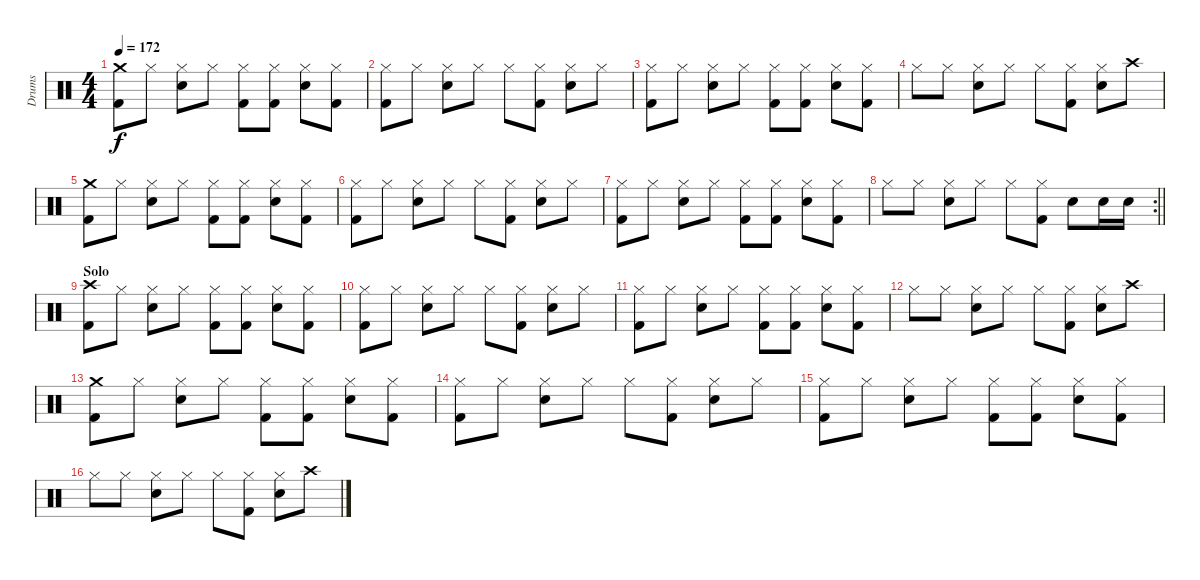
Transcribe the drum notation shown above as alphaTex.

\track ("Drums" "Drums") {instrument percussion}
\staff {score}
\articulation defaults
\ts (4 4)
\tempo 172
\clef neutral
\ks c
("Crash medium (hit)" "Kick (hit) 2").8{dy f} "Hi-Hat (closed)".8 ("Hi-Hat (closed)" "Electric Snare (hit)").8 "Hi-Hat (closed)".8 ("Hi-Hat (closed)" "Kick (hit) 2").8 ("Hi-Hat (closed)" "Kick (hit) 2").8 ("Hi-Hat (closed)" "Electric Snare (hit)").8 ("Hi-Hat (closed)" "Kick (hit) 2").8 |
("Hi-Hat (closed)" "Kick (hit) 2").8 "Hi-Hat (closed)".8 ("Hi-Hat (closed)" "Electric Snare (hit)").8 "Hi-Hat (closed)".8 "Hi-Hat (closed)".8 ("Hi-Hat (closed)" "Kick (hit) 2").8 ("Hi-Hat (closed)" "Electric Snare (hit)").8 "Hi-Hat (closed)".8 |
("Hi-Hat (closed)" "Kick (hit) 2").8 "Hi-Hat (closed)".8 ("Hi-Hat (closed)" "Electric Snare (hit)").8 "Hi-Hat (closed)".8 ("Hi-Hat (closed)" "Kick (hit) 2").8 ("Hi-Hat (closed)" "Kick (hit) 2").8 ("Hi-Hat (closed)" "Electric Snare (hit)").8 ("Hi-Hat (closed)" "Kick (hit) 2").8 |
"Hi-Hat (closed)".8 "Hi-Hat (closed)".8 ("Hi-Hat (closed)" "Electric Snare (hit)").8 "Hi-Hat (closed)".8 "Hi-Hat (closed)".8 ("Hi-Hat (closed)" "Kick (hit) 2").8 ("Hi-Hat (closed)" "Electric Snare (hit)").8 "Crash high (hit)".8 |
("Crash medium (hit)" "Kick (hit) 2").8 "Hi-Hat (closed)".8 ("Hi-Hat (closed)" "Electric Snare (hit)").8 "Hi-Hat (closed)".8 ("Hi-Hat (closed)" "Kick (hit) 2").8 ("Hi-Hat (closed)" "Kick (hit) 2").8 ("Hi-Hat (closed)" "Electric Snare (hit)").8 ("Hi-Hat (closed)" "Kick (hit) 2").8 |
("Hi-Hat (closed)" "Kick (hit) 2").8 "Hi-Hat (closed)".8 ("Hi-Hat (closed)" "Electric Snare (hit)").8 "Hi-Hat (closed)".8 "Hi-Hat (closed)".8 ("Hi-Hat (closed)" "Kick (hit) 2").8 ("Hi-Hat (closed)" "Electric Snare (hit)").8 "Hi-Hat (closed)".8 |
("Hi-Hat (closed)" "Kick (hit) 2").8 "Hi-Hat (closed)".8 ("Hi-Hat (closed)" "Electric Snare (hit)").8 "Hi-Hat (closed)".8 ("Hi-Hat (closed)" "Kick (hit) 2").8 ("Hi-Hat (closed)" "Kick (hit) 2").8 ("Hi-Hat (closed)" "Electric Snare (hit)").8 ("Hi-Hat (closed)" "Kick (hit) 2").8 |
\rc 2
\barLineRight lightlight "Hi-Hat (closed)".8 "Hi-Hat (closed)".8
("Hi-Hat (closed)" "Electric Snare (hit)").8 "Hi-Hat (closed)".8 "Hi-Hat (closed)".8 ("Hi-Hat (closed)" "Kick (hit) 2").8 "Electric Snare (hit)".8 "Electric Snare (hit)".16 "Electric Snare (hit)".16 |
\section ("" "Solo")
("Crash high (hit)" "Kick (hit) 2").8 "Hi-Hat (closed)".8 ("Hi-Hat (closed)" "Electric Snare (hit)").8 "Hi-Hat (closed)".8 ("Hi-Hat (closed)" "Kick (hit) 2").8 ("Hi-Hat (closed)" "Kick (hit) 2").8 ("Hi-Hat (closed)" "Electric Snare (hit)").8 ("Hi-Hat (closed)" "Kick (hit) 2").8 |
("Hi-Hat (closed)" "Kick (hit) 2").8 "Hi-Hat (closed)".8 ("Hi-Hat (closed)" "Electric Snare (hit)").8 "Hi-Hat (closed)".8 "Hi-Hat (closed)".8 ("Hi-Hat (closed)" "Kick (hit) 2").8 ("Hi-Hat (closed)" "Electric Snare (hit)").8 "Hi-Hat (closed)".8 |
("Hi-Hat (closed)" "Kick (hit) 2").8 "Hi-Hat (closed)".8 ("Hi-Hat (closed)" "Electric Snare (hit)").8 "Hi-Hat (closed)".8 ("Hi-Hat (closed)" "Kick (hit) 2").8 ("Hi-Hat (closed)" "Kick (hit) 2").8 ("Hi-Hat (closed)" "Electric Snare (hit)").8 ("Hi-Hat (closed)" "Kick (hit) 2").8 |
"Hi-Hat (closed)".8 "Hi-Hat (closed)".8 ("Hi-Hat (closed)" "Electric Snare (hit)").8 "Hi-Hat (closed)".8 "Hi-Hat (closed)".8 ("Hi-Hat (closed)" "Kick (hit) 2").8 ("Hi-Hat (closed)" "Electric Snare (hit)").8 "Crash high (hit)".8 |
("Crash medium (hit)" "Kick (hit) 2").8 "Hi-Hat (closed)".8 ("Hi-Hat (closed)" "Electric Snare (hit)").8 "Hi-Hat (closed)".8 ("Hi-Hat (closed)" "Kick (hit) 2").8 ("Hi-Hat (closed)" "Kick (hit) 2").8 ("Hi-Hat (closed)" "Electric Snare (hit)").8 ("Hi-Hat (closed)" "Kick (hit) 2").8 |
("Hi-Hat (closed)" "Kick (hit) 2").8 "Hi-Hat (closed)".8 ("Hi-Hat (closed)" "Electric Snare (hit)").8 "Hi-Hat (closed)".8 "Hi-Hat (closed)".8 ("Hi-Hat (closed)" "Kick (hit) 2").8 ("Hi-Hat (closed)" "Electric Snare (hit)").8 "Hi-Hat (closed)".8 |
("Hi-Hat (closed)" "Kick (hit) 2").8 "Hi-Hat (closed)".8 ("Hi-Hat (closed)" "Electric Snare (hit)").8 "Hi-Hat (closed)".8 ("Hi-Hat (closed)" "Kick (hit) 2").8 ("Hi-Hat (closed)" "Kick (hit) 2").8 ("Hi-Hat (closed)" "Electric Snare (hit)").8 ("Hi-Hat (closed)" "Kick (hit) 2").8 |
"Hi-Hat (closed)".8 "Hi-Hat (closed)".8 ("Hi-Hat (closed)" "Electric Snare (hit)").8 "Hi-Hat (closed)".8 "Hi-Hat (closed)".8 ("Hi-Hat (closed)" "Kick (hit) 2").8 ("Hi-Hat (closed)" "Electric Snare (hit)").8 "Crash high (hit)".8
